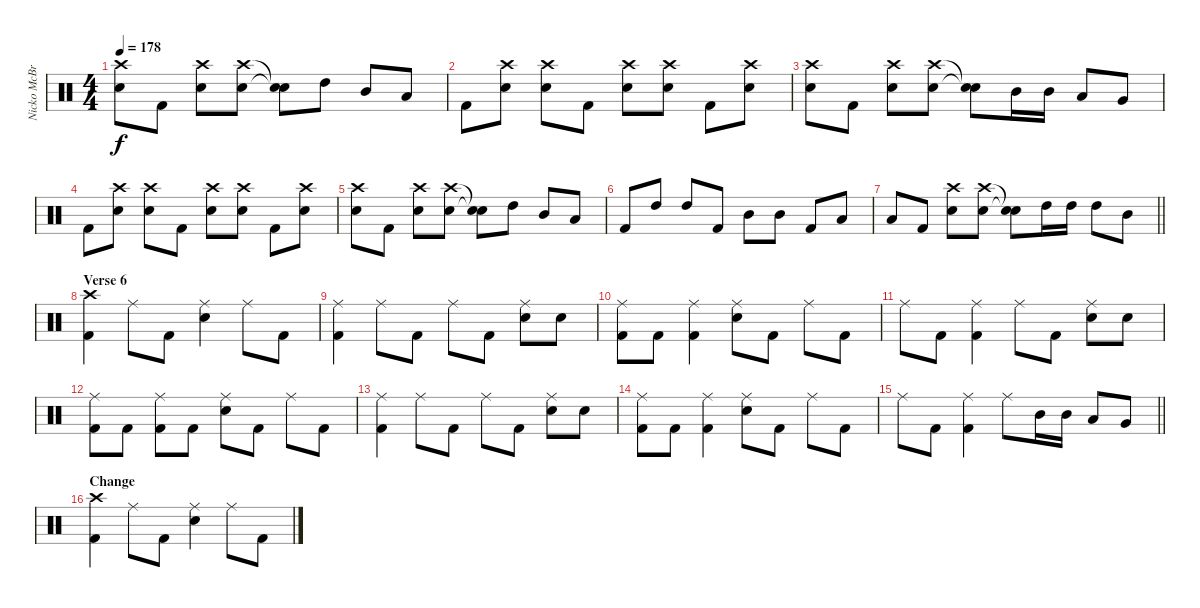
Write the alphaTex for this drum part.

\track ("Nicko McBrian" "Nicko McBr") {instrument percussion}
\staff {score}
\articulation defaults
\ts (4 4)
\tempo 178
\clef neutral
\ks c
("Crash high (hit)" "Electric Snare (hit)").8{dy f} "Kick (hit) 2".8 ("Crash high (hit)" "Electric Snare (hit)").8 ("Crash high (hit)" "Electric Snare (hit)").8 ("Snare (hit)"{t} "Snare (hit)"{t}).8 "High Tom (hit)".8 "Mid Tom (hit)".8 "Low Tom (hit)".8 |
"Kick (hit) 2".8 ("Crash high (hit)" "Electric Snare (hit)").8 ("Crash high (hit)" "Electric Snare (hit)").8 "Kick (hit) 2".8 ("Crash high (hit)" "Electric Snare (hit)").8 ("Crash high (hit)" "Electric Snare (hit)").8 "Kick (hit) 2".8 ("Crash high (hit)" "Electric Snare (hit)").8 |
("Crash high (hit)" "Electric Snare (hit)").8 "Kick (hit) 2".8 ("Crash high (hit)" "Electric Snare (hit)").8 ("Crash high (hit)" "Electric Snare (hit)").8 ("Snare (hit)"{t} "Snare (hit)"{t}).8 "Mid Tom (hit)".16 "Mid Tom (hit)".16 "Low Tom (hit)".8 "Very Low Tom (hit)".8 |
"Kick (hit) 2".8 ("Crash high (hit)" "Electric Snare (hit)").8 ("Crash high (hit)" "Electric Snare (hit)").8 "Kick (hit) 2".8 ("Crash high (hit)" "Electric Snare (hit)").8 ("Crash high (hit)" "Electric Snare (hit)").8 "Kick (hit) 2".8 ("Crash high (hit)" "Electric Snare (hit)").8 |
("Crash high (hit)" "Electric Snare (hit)").8 "Kick (hit) 2".8 ("Crash high (hit)" "Electric Snare (hit)").8 ("Crash high (hit)" "Electric Snare (hit)").8 ("Snare (hit)"{t} "Snare (hit)"{t}).8 "High Tom (hit)".8 "Mid Tom (hit)".8 "Low Tom (hit)".8 |
"Kick (hit) 2".8 "High Tom (hit)".8 "High Tom (hit)".8 "Kick (hit) 2".8 "Mid Tom (hit)".8 "Mid Tom (hit)".8 "Kick (hit) 2".8 "Low Tom (hit)".8 |
\barLineRight lightlight "Low Tom (hit)".8 "Kick (hit) 2".8
("Crash high (hit)" "Electric Snare (hit)").8 ("Crash high (hit)" "Electric Snare (hit)").8 ("Snare (hit)"{t} "Snare (hit)"{t}).8 "High Tom (hit)".16 "High Tom (hit)".16 "High Tom (hit)".8 "Mid Tom (hit)".8 |
\section ("" "Verse 6")
("Crash high (hit)" "Kick (hit) 2").4 "Ride (middle)".8 "Kick (hit) 2".8 ("Ride (middle)" "Electric Snare (hit)").4 "Ride (middle)".8 "Kick (hit) 2".8 |
("Ride (middle)" "Kick (hit) 2").4 "Ride (middle)".8 "Kick (hit) 2".8 "Ride (middle)".8 "Kick (hit) 2".8 ("Ride (middle)" "Electric Snare (hit)").8 "Electric Snare (hit)".8 |
("Ride (middle)" "Kick (hit) 2").8 "Kick (hit) 2".8 ("Ride (middle)" "Kick (hit) 2").4 ("Ride (middle)" "Electric Snare (hit)").8 "Kick (hit) 2".8 "Ride (middle)".8 "Kick (hit) 2".8 |
"Ride (middle)".8 "Kick (hit) 2".8 ("Ride (middle)" "Kick (hit) 2").4 "Ride (middle)".8 "Kick (hit) 2".8 ("Ride (middle)" "Electric Snare (hit)").8 "Electric Snare (hit)".8 |
("Ride (middle)" "Kick (hit) 2").8 "Kick (hit) 2".8 ("Ride (middle)" "Kick (hit) 2").8 "Kick (hit) 2".8 ("Ride (middle)" "Electric Snare (hit)").8 "Kick (hit) 2".8 "Ride (middle)".8 "Kick (hit) 2".8 |
("Ride (middle)" "Kick (hit) 2").4 "Ride (middle)".8 "Kick (hit) 2".8 "Ride (middle)".8 "Kick (hit) 2".8 ("Ride (middle)" "Electric Snare (hit)").8 "Electric Snare (hit)".8 |
("Ride (middle)" "Kick (hit) 2").8 "Kick (hit) 2".8 ("Ride (middle)" "Kick (hit) 2").4 ("Ride (middle)" "Electric Snare (hit)").8 "Kick (hit) 2".8 "Ride (middle)".8 "Kick (hit) 2".8 |
\barLineRight lightlight "Ride (middle)".8 "Kick (hit) 2".8
("Ride (middle)" "Kick (hit) 2").4 "Ride (middle)".8 "Mid Tom (hit)".16 "Mid Tom (hit)".16 "Low Tom (hit)".8 "Very Low Tom (hit)".8 |
\section ("" "Change")
("Crash high (hit)" "Kick (hit) 2").4 "Ride (middle)".8 "Kick (hit) 2".8 ("Ride (middle)" "Electric Snare (hit)").4 "Ride (middle)".8 "Kick (hit) 2".8
